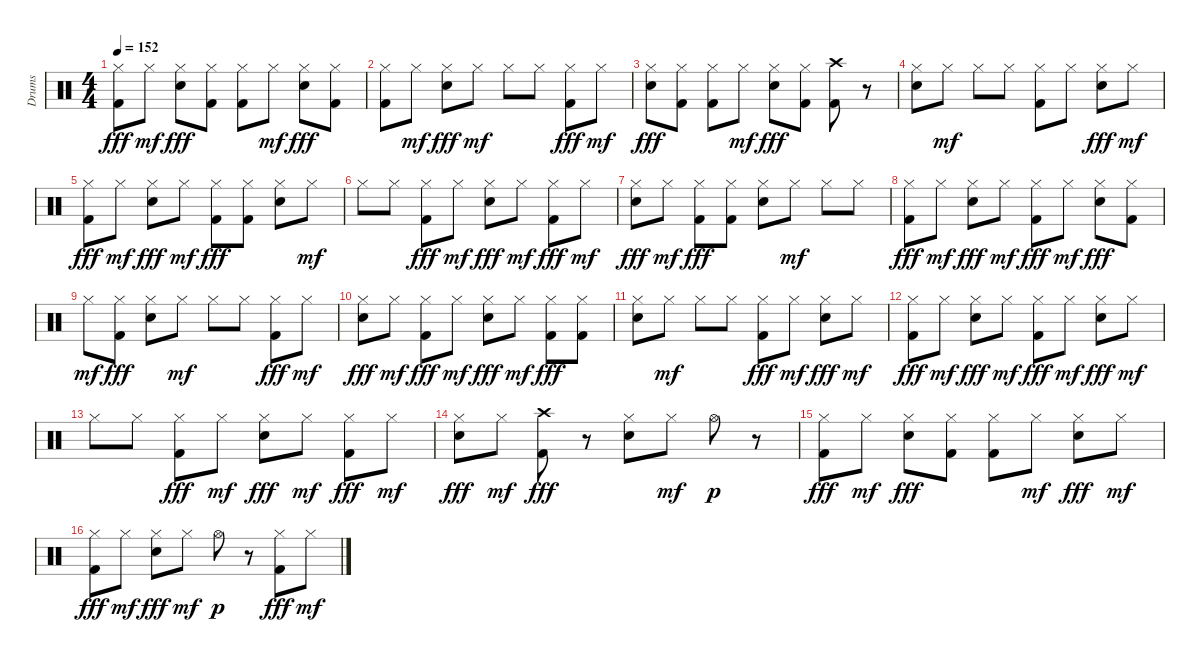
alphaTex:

\track ("Drums" "Drums") {instrument percussion}
\staff {score}
\articulation defaults
\ts (4 4)
\tempo 152
\clef neutral
\ks c
("Hi-Hat (closed)" "Kick (hit) 2").8{dy fff} "Hi-Hat (closed)".8{dy mf} ("Hi-Hat (closed)" "Electric Snare (hit)").8{dy fff} ("Hi-Hat (closed)" "Kick (hit) 2").8 ("Hi-Hat (closed)" "Kick (hit) 2").8 "Hi-Hat (closed)".8{dy mf} ("Hi-Hat (closed)" "Electric Snare (hit)").8{dy fff} ("Hi-Hat (closed)" "Kick (hit) 2").8 |
("Hi-Hat (closed)" "Kick (hit) 2").8 "Hi-Hat (closed)".8{dy mf} ("Hi-Hat (closed)" "Electric Snare (hit)").8{dy fff} "Hi-Hat (closed)".8{dy mf} "Hi-Hat (closed)".8 "Hi-Hat (closed)".8 ("Hi-Hat (closed)" "Kick (hit) 2").8{dy fff} "Hi-Hat (closed)".8{dy mf} |
("Hi-Hat (closed)" "Electric Snare (hit)").8{dy fff} ("Hi-Hat (closed)" "Kick (hit) 2").8 ("Hi-Hat (closed)" "Kick (hit) 2").8 "Hi-Hat (closed)".8{dy mf} ("Hi-Hat (closed)" "Electric Snare (hit)").8{dy fff} ("Hi-Hat (closed)" "Kick (hit) 2").8 ("Crash high (hit)" "Kick (hit) 2").8 r.8 |
("Hi-Hat (closed)" "Electric Snare (hit)").8 "Hi-Hat (closed)".8{dy mf} "Hi-Hat (closed)".8 "Hi-Hat (closed)".8 ("Kick (hit) 2" "Hi-Hat (closed)").8 "Hi-Hat (closed)".8 ("Hi-Hat (closed)" "Electric Snare (hit)").8{dy fff} "Hi-Hat (closed)".8{dy mf} |
("Hi-Hat (closed)" "Kick (hit) 2").8{dy fff} "Hi-Hat (closed)".8{dy mf} ("Hi-Hat (closed)" "Electric Snare (hit)").8{dy fff} "Hi-Hat (closed)".8{dy mf} ("Hi-Hat (closed)" "Kick (hit) 2").8{dy fff} ("Hi-Hat (closed)" "Kick (hit) 2").8 ("Hi-Hat (closed)" "Electric Snare (hit)").8 "Hi-Hat (closed)".8{dy mf} |
"Hi-Hat (closed)".8 "Hi-Hat (closed)".8 ("Hi-Hat (closed)" "Kick (hit) 2").8{dy fff} "Hi-Hat (closed)".8{dy mf} ("Hi-Hat (closed)" "Electric Snare (hit)").8{dy fff} "Hi-Hat (closed)".8{dy mf} ("Hi-Hat (closed)" "Kick (hit) 2").8{dy fff} "Hi-Hat (closed)".8{dy mf} |
("Hi-Hat (closed)" "Electric Snare (hit)").8{dy fff} "Hi-Hat (closed)".8{dy mf} ("Hi-Hat (closed)" "Kick (hit) 2").8{dy fff} ("Hi-Hat (closed)" "Kick (hit) 2").8 ("Hi-Hat (closed)" "Electric Snare (hit)").8 "Hi-Hat (closed)".8{dy mf} "Hi-Hat (closed)".8 "Hi-Hat (closed)".8 |
("Hi-Hat (closed)" "Kick (hit) 2").8{dy fff} "Hi-Hat (closed)".8{dy mf} ("Hi-Hat (closed)" "Electric Snare (hit)").8{dy fff} "Hi-Hat (closed)".8{dy mf} ("Hi-Hat (closed)" "Kick (hit) 2").8{dy fff} "Hi-Hat (closed)".8{dy mf} ("Hi-Hat (closed)" "Electric Snare (hit)").8{dy fff} ("Hi-Hat (closed)" "Kick (hit) 2").8 |
"Hi-Hat (closed)".8{dy mf} ("Hi-Hat (closed)" "Kick (hit) 2").8{dy fff} ("Hi-Hat (closed)" "Electric Snare (hit)").8 "Hi-Hat (closed)".8{dy mf} "Hi-Hat (closed)".8 "Hi-Hat (closed)".8 ("Hi-Hat (closed)" "Kick (hit) 2").8{dy fff} "Hi-Hat (closed)".8{dy mf} |
("Hi-Hat (closed)" "Electric Snare (hit)").8{dy fff} "Hi-Hat (closed)".8{dy mf} ("Hi-Hat (closed)" "Kick (hit) 2").8{dy fff} "Hi-Hat (closed)".8{dy mf} ("Hi-Hat (closed)" "Electric Snare (hit)").8{dy fff} "Hi-Hat (closed)".8{dy mf} ("Hi-Hat (closed)" "Kick (hit) 2").8{dy fff} ("Hi-Hat (closed)" "Kick (hit) 2").8 |
("Hi-Hat (closed)" "Electric Snare (hit)").8 "Hi-Hat (closed)".8{dy mf} "Hi-Hat (closed)".8 "Hi-Hat (closed)".8 ("Hi-Hat (closed)" "Kick (hit) 2").8{dy fff} "Hi-Hat (closed)".8{dy mf} ("Hi-Hat (closed)" "Electric Snare (hit)").8{dy fff} "Hi-Hat (closed)".8{dy mf} |
("Hi-Hat (closed)" "Kick (hit) 2").8{dy fff} "Hi-Hat (closed)".8{dy mf} ("Hi-Hat (closed)" "Electric Snare (hit)").8{dy fff} "Hi-Hat (closed)".8{dy mf} ("Hi-Hat (closed)" "Kick (hit) 2").8{dy fff} "Hi-Hat (closed)".8{dy mf} ("Hi-Hat (closed)" "Electric Snare (hit)").8{dy fff} "Hi-Hat (closed)".8{dy mf} |
"Hi-Hat (closed)".8 "Hi-Hat (closed)".8 ("Hi-Hat (closed)" "Kick (hit) 2").8{dy fff} "Hi-Hat (closed)".8{dy mf} ("Hi-Hat (closed)" "Electric Snare (hit)").8{dy fff} "Hi-Hat (closed)".8{dy mf} ("Hi-Hat (closed)" "Kick (hit) 2").8{dy fff} "Hi-Hat (closed)".8{dy mf} |
("Hi-Hat (closed)" "Electric Snare (hit)").8{dy fff} "Hi-Hat (closed)".8{dy mf} ("Crash high (hit)" "Kick (hit) 2").8{dy fff} r.8 ("Hi-Hat (closed)" "Electric Snare (hit)").8 "Hi-Hat (closed)".8{dy mf} "Hi-Hat (open)".8{dy p} r.8 |
("Hi-Hat (closed)" "Kick (hit) 2").8{dy fff} "Hi-Hat (closed)".8{dy mf} ("Hi-Hat (closed)" "Electric Snare (hit)").8{dy fff} ("Hi-Hat (closed)" "Kick (hit) 2").8 ("Hi-Hat (closed)" "Kick (hit) 2").8 "Hi-Hat (closed)".8{dy mf} ("Hi-Hat (closed)" "Electric Snare (hit)").8{dy fff} "Hi-Hat (closed)".8{dy mf} |
("Hi-Hat (closed)" "Kick (hit) 2").8{dy fff} "Hi-Hat (closed)".8{dy mf} ("Hi-Hat (closed)" "Electric Snare (hit)").8{dy fff} "Hi-Hat (closed)".8{dy mf} "Hi-Hat (open)".8{dy p} r.8 ("Hi-Hat (closed)" "Kick (hit) 2").8{dy fff} "Hi-Hat (closed)".8{dy mf}
